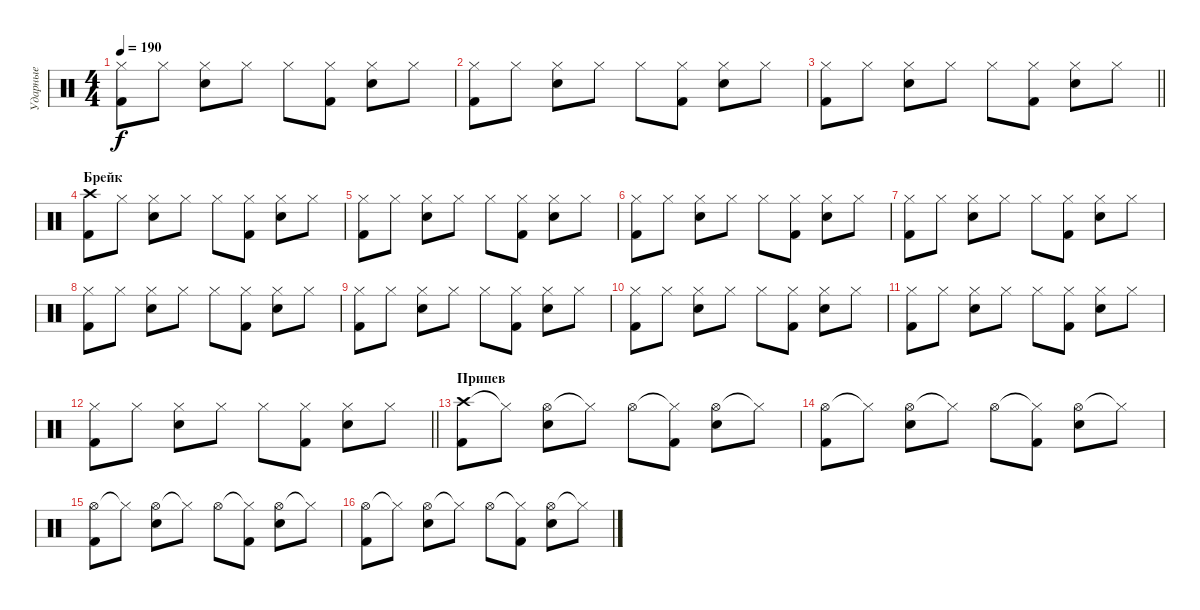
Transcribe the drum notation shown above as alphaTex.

\track ("Ударные" "Ударные") {instrument percussion}
\staff {score}
\articulation defaults
\ts (4 4)
\tempo 190
\clef neutral
\ks c
("Hi-Hat (closed)" "Kick (hit) 2").8{dy f} "Hi-Hat (closed)".8 ("Hi-Hat (closed)" "Snare (hit) 2").8 "Hi-Hat (closed)".8 "Hi-Hat (closed)".8 ("Hi-Hat (closed)" "Kick (hit) 2").8 ("Hi-Hat (closed)" "Snare (hit) 2").8 "Hi-Hat (closed)".8 |
("Hi-Hat (closed)" "Kick (hit) 2").8 "Hi-Hat (closed)".8 ("Hi-Hat (closed)" "Snare (hit) 2").8 "Hi-Hat (closed)".8 "Hi-Hat (closed)".8 ("Hi-Hat (closed)" "Kick (hit) 2").8 ("Hi-Hat (closed)" "Snare (hit) 2").8 "Hi-Hat (closed)".8 |
\barLineRight lightlight
("Hi-Hat (closed)" "Kick (hit) 2").8 "Hi-Hat (closed)".8 ("Hi-Hat (closed)" "Snare (hit) 2").8 "Hi-Hat (closed)".8 "Hi-Hat (closed)".8 ("Hi-Hat (closed)" "Kick (hit) 2").8 ("Hi-Hat (closed)" "Snare (hit) 2").8 "Hi-Hat (closed)".8 |
\section ("" "Брейк")
("Crash high (hit)" "Kick (hit) 2").8 "Hi-Hat (closed)".8 ("Hi-Hat (closed)" "Snare (hit) 2").8 "Hi-Hat (closed)".8 "Hi-Hat (closed)".8 ("Hi-Hat (closed)" "Kick (hit) 2").8 ("Hi-Hat (closed)" "Snare (hit) 2").8 "Hi-Hat (closed)".8 |
("Hi-Hat (closed)" "Kick (hit) 2").8 "Hi-Hat (closed)".8 ("Hi-Hat (closed)" "Snare (hit) 2").8 "Hi-Hat (closed)".8 "Hi-Hat (closed)".8 ("Hi-Hat (closed)" "Kick (hit) 2").8 ("Hi-Hat (closed)" "Snare (hit) 2").8 "Hi-Hat (closed)".8 |
("Hi-Hat (closed)" "Kick (hit) 2").8 "Hi-Hat (closed)".8 ("Hi-Hat (closed)" "Snare (hit) 2").8 "Hi-Hat (closed)".8 "Hi-Hat (closed)".8 ("Hi-Hat (closed)" "Kick (hit) 2").8 ("Hi-Hat (closed)" "Snare (hit) 2").8 "Hi-Hat (closed)".8 |
("Hi-Hat (closed)" "Kick (hit) 2").8 "Hi-Hat (closed)".8 ("Hi-Hat (closed)" "Snare (hit) 2").8 "Hi-Hat (closed)".8 "Hi-Hat (closed)".8 ("Hi-Hat (closed)" "Kick (hit) 2").8 ("Hi-Hat (closed)" "Snare (hit) 2").8 "Hi-Hat (closed)".8 |
("Hi-Hat (closed)" "Kick (hit) 2").8 "Hi-Hat (closed)".8 ("Hi-Hat (closed)" "Snare (hit) 2").8 "Hi-Hat (closed)".8 "Hi-Hat (closed)".8 ("Hi-Hat (closed)" "Kick (hit) 2").8 ("Hi-Hat (closed)" "Snare (hit) 2").8 "Hi-Hat (closed)".8 |
("Hi-Hat (closed)" "Kick (hit) 2").8 "Hi-Hat (closed)".8 ("Hi-Hat (closed)" "Snare (hit) 2").8 "Hi-Hat (closed)".8 "Hi-Hat (closed)".8 ("Hi-Hat (closed)" "Kick (hit) 2").8 ("Hi-Hat (closed)" "Snare (hit) 2").8 "Hi-Hat (closed)".8 |
("Hi-Hat (closed)" "Kick (hit) 2").8 "Hi-Hat (closed)".8 ("Hi-Hat (closed)" "Snare (hit) 2").8 "Hi-Hat (closed)".8 "Hi-Hat (closed)".8 ("Hi-Hat (closed)" "Kick (hit) 2").8 ("Hi-Hat (closed)" "Snare (hit) 2").8 "Hi-Hat (closed)".8 |
("Hi-Hat (closed)" "Kick (hit) 2").8 "Hi-Hat (closed)".8 ("Hi-Hat (closed)" "Snare (hit) 2").8 "Hi-Hat (closed)".8 "Hi-Hat (closed)".8 ("Hi-Hat (closed)" "Kick (hit) 2").8 ("Hi-Hat (closed)" "Snare (hit) 2").8 "Hi-Hat (closed)".8 |
\barLineRight lightlight
("Hi-Hat (closed)" "Kick (hit) 2").8 "Hi-Hat (closed)".8 ("Hi-Hat (closed)" "Snare (hit) 2").8 "Hi-Hat (closed)".8 "Hi-Hat (closed)".8 ("Hi-Hat (closed)" "Kick (hit) 2").8 ("Hi-Hat (closed)" "Snare (hit) 2").8 "Hi-Hat (closed)".8 |
\section ("" "Припев")
("Crash high (hit)" "Kick (hit) 2").8 "Hi-Hat (closed)"{t}.8 ("Hi-Hat (open)" "Snare (hit) 2").8 "Hi-Hat (closed)"{t}.8 "Hi-Hat (open)".8 ("Hi-Hat (closed)"{t} "Kick (hit) 2").8 ("Hi-Hat (open)" "Snare (hit) 2").8 "Hi-Hat (closed)"{t}.8 |
("Hi-Hat (open)" "Kick (hit) 2").8 "Hi-Hat (closed)"{t}.8 ("Hi-Hat (open)" "Snare (hit) 2").8 "Hi-Hat (closed)"{t}.8 "Hi-Hat (open)".8 ("Hi-Hat (closed)"{t} "Kick (hit) 2").8 ("Hi-Hat (open)" "Snare (hit) 2").8 "Hi-Hat (closed)"{t}.8 |
("Hi-Hat (open)" "Kick (hit) 2").8 "Hi-Hat (closed)"{t}.8 ("Hi-Hat (open)" "Snare (hit) 2").8 "Hi-Hat (closed)"{t}.8 "Hi-Hat (open)".8 ("Hi-Hat (closed)"{t} "Kick (hit) 2").8 ("Hi-Hat (open)" "Snare (hit) 2").8 "Hi-Hat (closed)"{t}.8 |
("Hi-Hat (open)" "Kick (hit) 2").8 "Hi-Hat (closed)"{t}.8 ("Hi-Hat (open)" "Snare (hit) 2").8 "Hi-Hat (closed)"{t}.8 "Hi-Hat (open)".8 ("Hi-Hat (closed)"{t} "Kick (hit) 2").8 ("Hi-Hat (open)" "Snare (hit) 2").8 "Hi-Hat (closed)"{t}.8
